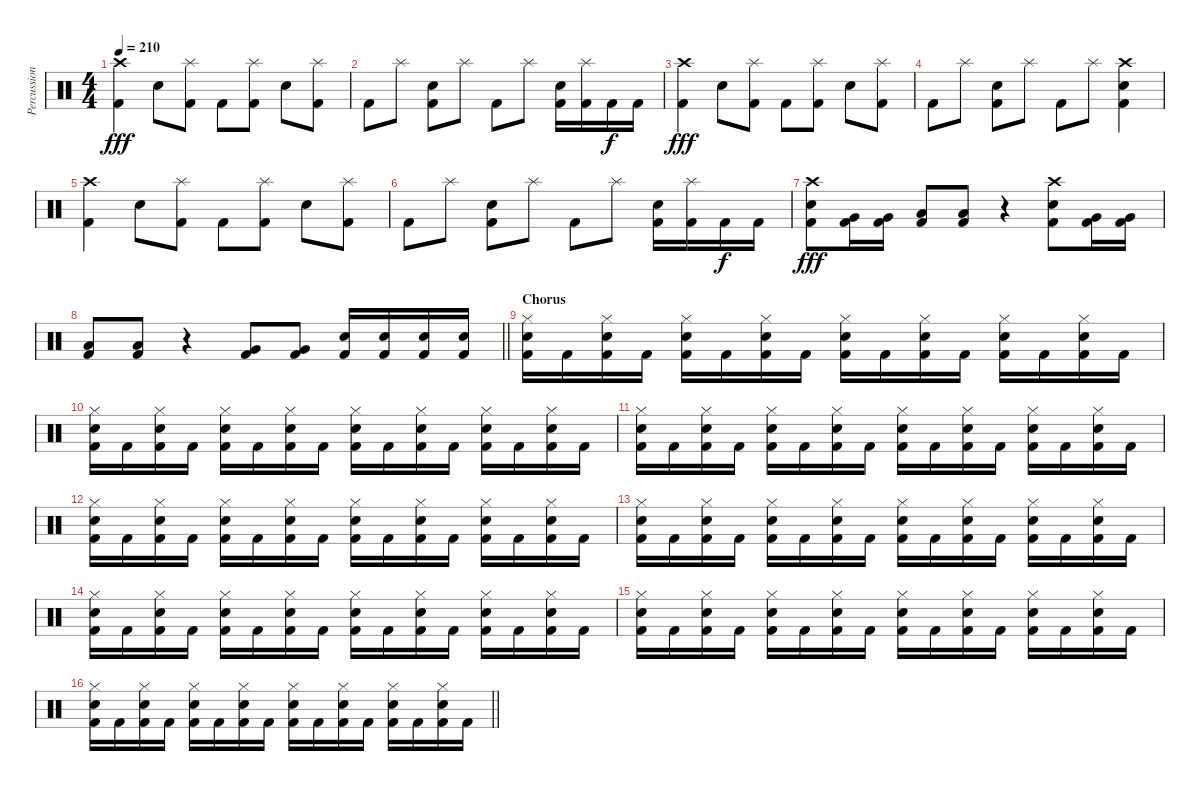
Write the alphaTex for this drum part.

\track ("Percussion" "Percussion") {instrument percussion}
\staff {score}
\articulation defaults
\ts (4 4)
\tempo 210
\clef neutral
\ks c
("Crash high (hit)" "Kick (hit) 2").4{dy fff} "Electric Snare (hit)".8 ("Splash (hit)" "Kick (hit) 2").8 "Kick (hit) 2".8 ("Splash (hit)" "Kick (hit) 2").8 "Electric Snare (hit)".8 ("Splash (hit)" "Kick (hit) 2").8 |
"Kick (hit) 2".8 "Splash (hit)".8 ("Electric Snare (hit)" "Kick (hit) 2").8 "Splash (hit)".8 "Kick (hit) 2".8 "Splash (hit)".8 ("Electric Snare (hit)" "Kick (hit) 2").16 ("Splash (hit)" "Kick (hit) 2").16 "Kick (hit) 2".16{dy f} "Kick (hit) 2".16 |
("Crash high (hit)" "Kick (hit) 2").4{dy fff} "Electric Snare (hit)".8 ("Splash (hit)" "Kick (hit) 2").8 "Kick (hit) 2".8 ("Splash (hit)" "Kick (hit) 2").8 "Electric Snare (hit)".8 ("Splash (hit)" "Kick (hit) 2").8 |
"Kick (hit) 2".8 "Splash (hit)".8 ("Electric Snare (hit)" "Kick (hit) 2").8 "Splash (hit)".8 "Kick (hit) 2".8 "Splash (hit)".8 ("Crash high (hit)" "Electric Snare (hit)" "Kick (hit) 2").4 |
("Crash high (hit)" "Kick (hit) 2").4 "Electric Snare (hit)".8 ("Splash (hit)" "Kick (hit) 2").8 "Kick (hit) 2".8 ("Splash (hit)" "Kick (hit) 2").8 "Electric Snare (hit)".8 ("Splash (hit)" "Kick (hit) 2").8 |
"Kick (hit) 2".8 "Splash (hit)".8 ("Electric Snare (hit)" "Kick (hit) 2").8 "Splash (hit)".8 "Kick (hit) 2".8 "Splash (hit)".8 ("Electric Snare (hit)" "Kick (hit) 2").16 ("Splash (hit)" "Kick (hit) 2").16 "Kick (hit) 2".16{dy f} "Kick (hit) 2".16 |
("Crash high (hit)" "Electric Snare (hit)" "Kick (hit) 2").8{dy fff} ("Very Low Tom (hit)" "Kick (hit) 2").16 ("Very Low Tom (hit)" "Kick (hit) 2").16 ("Low Floor Tom (hit)" "Kick (hit) 2").8 ("Low Floor Tom (hit)" "Kick (hit) 2").8 r.4 ("Crash high (hit)" "Electric Snare (hit)" "Kick (hit) 2").8 ("Very Low Tom (hit)" "Kick (hit) 2").16 ("Very Low Tom (hit)" "Kick (hit) 2").16 |
\barLineRight lightlight
("Low Floor Tom (hit)" "Kick (hit) 2").8 ("Low Floor Tom (hit)" "Kick (hit) 2").8 r.4 ("Very Low Tom (hit)" "Kick (hit) 2").8 ("Very Low Tom (hit)" "Kick (hit) 2").8 ("Electric Snare (hit)" "Kick (hit) 2").16 ("Electric Snare (hit)" "Kick (hit) 2").16 ("Electric Snare (hit)" "Kick (hit) 2").16 ("Electric Snare (hit)" "Kick (hit) 2").16 |
\section ("" "Chorus")
("Hi-Hat (closed)" "Electric Snare (hit)" "Kick (hit) 2").16{volume 16} "Kick (hit) 2".16 ("Hi-Hat (closed)" "Electric Snare (hit)" "Kick (hit) 2").16 "Kick (hit) 2".16 ("Hi-Hat (closed)" "Electric Snare (hit)" "Kick (hit) 2").16 "Kick (hit) 2".16 ("Hi-Hat (closed)" "Electric Snare (hit)" "Kick (hit) 2").16 "Kick (hit) 2".16 ("Hi-Hat (closed)" "Electric Snare (hit)" "Kick (hit) 2").16 "Kick (hit) 2".16 ("Hi-Hat (closed)" "Electric Snare (hit)" "Kick (hit) 2").16 "Kick (hit) 2".16 ("Hi-Hat (closed)" "Electric Snare (hit)" "Kick (hit) 2").16 "Kick (hit) 2".16 ("Hi-Hat (closed)" "Electric Snare (hit)" "Kick (hit) 2").16 "Kick (hit) 2".16 |
("Hi-Hat (closed)" "Electric Snare (hit)" "Kick (hit) 2").16 "Kick (hit) 2".16 ("Hi-Hat (closed)" "Electric Snare (hit)" "Kick (hit) 2").16 "Kick (hit) 2".16 ("Hi-Hat (closed)" "Electric Snare (hit)" "Kick (hit) 2").16 "Kick (hit) 2".16 ("Hi-Hat (closed)" "Electric Snare (hit)" "Kick (hit) 2").16 "Kick (hit) 2".16 ("Hi-Hat (closed)" "Electric Snare (hit)" "Kick (hit) 2").16 "Kick (hit) 2".16 ("Hi-Hat (closed)" "Electric Snare (hit)" "Kick (hit) 2").16 "Kick (hit) 2".16 ("Hi-Hat (closed)" "Electric Snare (hit)" "Kick (hit) 2").16 "Kick (hit) 2".16 ("Hi-Hat (closed)" "Electric Snare (hit)" "Kick (hit) 2").16 "Kick (hit) 2".16 |
("Hi-Hat (closed)" "Electric Snare (hit)" "Kick (hit) 2").16 "Kick (hit) 2".16 ("Hi-Hat (closed)" "Electric Snare (hit)" "Kick (hit) 2").16 "Kick (hit) 2".16 ("Hi-Hat (closed)" "Electric Snare (hit)" "Kick (hit) 2").16 "Kick (hit) 2".16 ("Hi-Hat (closed)" "Electric Snare (hit)" "Kick (hit) 2").16 "Kick (hit) 2".16 ("Hi-Hat (closed)" "Electric Snare (hit)" "Kick (hit) 2").16 "Kick (hit) 2".16 ("Hi-Hat (closed)" "Electric Snare (hit)" "Kick (hit) 2").16 "Kick (hit) 2".16 ("Hi-Hat (closed)" "Electric Snare (hit)" "Kick (hit) 2").16 "Kick (hit) 2".16 ("Hi-Hat (closed)" "Electric Snare (hit)" "Kick (hit) 2").16 "Kick (hit) 2".16 |
("Hi-Hat (closed)" "Electric Snare (hit)" "Kick (hit) 2").16 "Kick (hit) 2".16 ("Hi-Hat (closed)" "Electric Snare (hit)" "Kick (hit) 2").16 "Kick (hit) 2".16 ("Hi-Hat (closed)" "Electric Snare (hit)" "Kick (hit) 2").16 "Kick (hit) 2".16 ("Hi-Hat (closed)" "Electric Snare (hit)" "Kick (hit) 2").16 "Kick (hit) 2".16 ("Hi-Hat (closed)" "Electric Snare (hit)" "Kick (hit) 2").16 "Kick (hit) 2".16 ("Hi-Hat (closed)" "Electric Snare (hit)" "Kick (hit) 2").16 "Kick (hit) 2".16 ("Hi-Hat (closed)" "Electric Snare (hit)" "Kick (hit) 2").16 "Kick (hit) 2".16 ("Hi-Hat (closed)" "Electric Snare (hit)" "Kick (hit) 2").16 "Kick (hit) 2".16 |
("Hi-Hat (closed)" "Electric Snare (hit)" "Kick (hit) 2").16 "Kick (hit) 2".16 ("Hi-Hat (closed)" "Electric Snare (hit)" "Kick (hit) 2").16 "Kick (hit) 2".16 ("Hi-Hat (closed)" "Electric Snare (hit)" "Kick (hit) 2").16 "Kick (hit) 2".16 ("Hi-Hat (closed)" "Electric Snare (hit)" "Kick (hit) 2").16 "Kick (hit) 2".16 ("Hi-Hat (closed)" "Electric Snare (hit)" "Kick (hit) 2").16 "Kick (hit) 2".16 ("Hi-Hat (closed)" "Electric Snare (hit)" "Kick (hit) 2").16 "Kick (hit) 2".16 ("Hi-Hat (closed)" "Electric Snare (hit)" "Kick (hit) 2").16 "Kick (hit) 2".16 ("Hi-Hat (closed)" "Electric Snare (hit)" "Kick (hit) 2").16 "Kick (hit) 2".16 |
("Hi-Hat (closed)" "Electric Snare (hit)" "Kick (hit) 2").16 "Kick (hit) 2".16 ("Hi-Hat (closed)" "Electric Snare (hit)" "Kick (hit) 2").16 "Kick (hit) 2".16 ("Hi-Hat (closed)" "Electric Snare (hit)" "Kick (hit) 2").16 "Kick (hit) 2".16 ("Hi-Hat (closed)" "Electric Snare (hit)" "Kick (hit) 2").16 "Kick (hit) 2".16 ("Hi-Hat (closed)" "Electric Snare (hit)" "Kick (hit) 2").16 "Kick (hit) 2".16 ("Hi-Hat (closed)" "Electric Snare (hit)" "Kick (hit) 2").16 "Kick (hit) 2".16 ("Hi-Hat (closed)" "Electric Snare (hit)" "Kick (hit) 2").16 "Kick (hit) 2".16 ("Hi-Hat (closed)" "Electric Snare (hit)" "Kick (hit) 2").16 "Kick (hit) 2".16 |
("Hi-Hat (closed)" "Electric Snare (hit)" "Kick (hit) 2").16 "Kick (hit) 2".16 ("Hi-Hat (closed)" "Electric Snare (hit)" "Kick (hit) 2").16 "Kick (hit) 2".16 ("Hi-Hat (closed)" "Electric Snare (hit)" "Kick (hit) 2").16 "Kick (hit) 2".16 ("Hi-Hat (closed)" "Electric Snare (hit)" "Kick (hit) 2").16 "Kick (hit) 2".16 ("Hi-Hat (closed)" "Electric Snare (hit)" "Kick (hit) 2").16 "Kick (hit) 2".16 ("Hi-Hat (closed)" "Electric Snare (hit)" "Kick (hit) 2").16 "Kick (hit) 2".16 ("Hi-Hat (closed)" "Electric Snare (hit)" "Kick (hit) 2").16 "Kick (hit) 2".16 ("Hi-Hat (closed)" "Electric Snare (hit)" "Kick (hit) 2").16 "Kick (hit) 2".16 |
\barLineRight lightlight
("Hi-Hat (closed)" "Electric Snare (hit)" "Kick (hit) 2").16 "Kick (hit) 2".16 ("Hi-Hat (closed)" "Electric Snare (hit)" "Kick (hit) 2").16 "Kick (hit) 2".16 ("Hi-Hat (closed)" "Electric Snare (hit)" "Kick (hit) 2").16 "Kick (hit) 2".16 ("Hi-Hat (closed)" "Electric Snare (hit)" "Kick (hit) 2").16 "Kick (hit) 2".16 ("Hi-Hat (closed)" "Electric Snare (hit)" "Kick (hit) 2").16 "Kick (hit) 2".16 ("Hi-Hat (closed)" "Electric Snare (hit)" "Kick (hit) 2").16 "Kick (hit) 2".16 ("Hi-Hat (closed)" "Electric Snare (hit)" "Kick (hit) 2").16 "Kick (hit) 2".16 ("Hi-Hat (closed)" "Electric Snare (hit)" "Kick (hit) 2").16 "Kick (hit) 2".16
